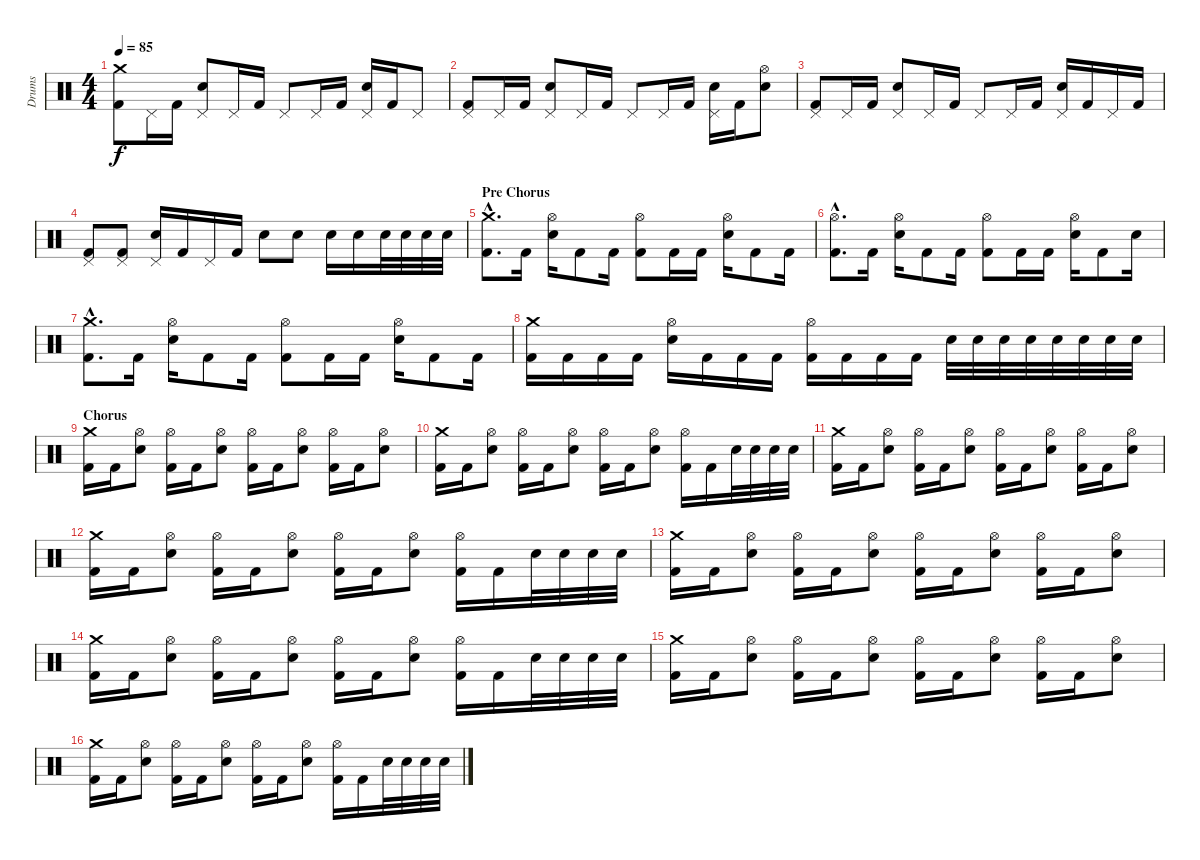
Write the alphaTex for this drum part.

\track ("Drums" "Drums") {instrument percussion}
\staff {score}
\articulation defaults
\ts (4 4)
\tempo 85
\clef neutral
\ks c
("Crash medium (hit)" "Kick (hit) 2").8{dy f} "Pedal Hi-Hat (hit)".16 "Kick (hit) 2".16 ("Pedal Hi-Hat (hit)" "Electric Snare (hit)").8 "Pedal Hi-Hat (hit)".16 "Kick (hit) 2".16 "Pedal Hi-Hat (hit)".8 "Pedal Hi-Hat (hit)".16 "Kick (hit) 2".16 ("Pedal Hi-Hat (hit)" "Electric Snare (hit)").16 "Kick (hit) 2".16 "Pedal Hi-Hat (hit)".8 |
("Pedal Hi-Hat (hit)" "Kick (hit) 2").8 "Pedal Hi-Hat (hit)".16 "Kick (hit) 2".16 ("Pedal Hi-Hat (hit)" "Electric Snare (hit)").8 "Pedal Hi-Hat (hit)".16 "Kick (hit) 2".16 "Pedal Hi-Hat (hit)".8 "Pedal Hi-Hat (hit)".16 "Kick (hit) 2".16 ("Pedal Hi-Hat (hit)" "Electric Snare (hit)").16 "Kick (hit) 2".16 ("Hi-Hat (open)" "Electric Snare (hit)").8 |
("Pedal Hi-Hat (hit)" "Kick (hit) 2").8 "Pedal Hi-Hat (hit)".16 "Kick (hit) 2".16 ("Pedal Hi-Hat (hit)" "Electric Snare (hit)").8 "Pedal Hi-Hat (hit)".16 "Kick (hit) 2".16 "Pedal Hi-Hat (hit)".8 "Pedal Hi-Hat (hit)".16 "Kick (hit) 2".16 ("Pedal Hi-Hat (hit)" "Electric Snare (hit)").16 "Kick (hit) 2".16 "Pedal Hi-Hat (hit)".16 "Kick (hit) 2".16 |
("Pedal Hi-Hat (hit)" "Kick (hit) 2").8 ("Pedal Hi-Hat (hit)" "Kick (hit) 2").8 ("Pedal Hi-Hat (hit)" "Electric Snare (hit)").16 "Kick (hit) 2".16 "Pedal Hi-Hat (hit)".16 "Kick (hit) 2".16 "Electric Snare (hit)".8 "Electric Snare (hit)".8 "Electric Snare (hit)".16 "Electric Snare (hit)".16 "Electric Snare (hit)".32 "Electric Snare (hit)".32 "Electric Snare (hit)".32 "Electric Snare (hit)".32 |
\section ("" "Pre Chorus")
("Crash medium (hit)"{hac} "Kick (hit) 2"{hac}).8{d} "Kick (hit) 2".16 ("Hi-Hat (open)" "Electric Snare (hit)").16 "Kick (hit) 2".8 "Kick (hit) 2".16 ("Hi-Hat (open)" "Kick (hit) 2").8 "Kick (hit) 2".16 "Kick (hit) 2".16 ("Hi-Hat (open)" "Electric Snare (hit)").16 "Kick (hit) 2".8 "Kick (hit) 2".16 |
("Hi-Hat (open)"{hac} "Kick (hit) 2"{hac}).8{d} "Kick (hit) 2".16 ("Hi-Hat (open)" "Electric Snare (hit)").16 "Kick (hit) 2".8 "Kick (hit) 2".16 ("Hi-Hat (open)" "Kick (hit) 2").8 "Kick (hit) 2".16 "Kick (hit) 2".16 ("Hi-Hat (open)" "Electric Snare (hit)").16 "Kick (hit) 2".8 "Electric Snare (hit)".16 |
("Crash medium (hit)"{hac} "Kick (hit) 2"{hac}).8{d} "Kick (hit) 2".16 ("Hi-Hat (open)" "Electric Snare (hit)").16 "Kick (hit) 2".8 "Kick (hit) 2".16 ("Hi-Hat (open)" "Kick (hit) 2").8 "Kick (hit) 2".16 "Kick (hit) 2".16 ("Hi-Hat (open)" "Electric Snare (hit)").16 "Kick (hit) 2".8 "Kick (hit) 2".16 |
("Crash medium (hit)" "Kick (hit) 2").16 "Kick (hit) 2".16 "Kick (hit) 2".16 "Kick (hit) 2".16 ("Hi-Hat (open)" "Electric Snare (hit)").16 "Kick (hit) 2".16 "Kick (hit) 2".16 "Kick (hit) 2".16 ("Hi-Hat (open)" "Kick (hit) 2").16 "Kick (hit) 2".16 "Kick (hit) 2".16 "Kick (hit) 2".16 "Electric Snare (hit)".32 "Electric Snare (hit)".32 "Electric Snare (hit)".32 "Electric Snare (hit)".32 "Electric Snare (hit)".32 "Electric Snare (hit)".32 "Electric Snare (hit)".32 "Electric Snare (hit)".32 |
\section ("" "Chorus")
("Crash medium (hit)" "Kick (hit) 2").16 "Kick (hit) 2".16 ("Hi-Hat (open)" "Electric Snare (hit)").8 ("Hi-Hat (open)" "Kick (hit) 2").16 "Kick (hit) 2".16 ("Hi-Hat (open)" "Electric Snare (hit)").8 ("Hi-Hat (open)" "Kick (hit) 2").16 "Kick (hit) 2".16 ("Hi-Hat (open)" "Electric Snare (hit)").8 ("Hi-Hat (open)" "Kick (hit) 2").16 "Kick (hit) 2".16 ("Hi-Hat (open)" "Electric Snare (hit)").8 |
("Crash medium (hit)" "Kick (hit) 2").16 "Kick (hit) 2".16 ("Hi-Hat (open)" "Electric Snare (hit)").8 ("Hi-Hat (open)" "Kick (hit) 2").16 "Kick (hit) 2".16 ("Hi-Hat (open)" "Electric Snare (hit)").8 ("Hi-Hat (open)" "Kick (hit) 2").16 "Kick (hit) 2".16 ("Hi-Hat (open)" "Electric Snare (hit)").8 ("Hi-Hat (open)" "Kick (hit) 2").16 "Kick (hit) 2".16 "Electric Snare (hit)".32 "Electric Snare (hit)".32 "Electric Snare (hit)".32 "Electric Snare (hit)".32 |
("Crash medium (hit)" "Kick (hit) 2").16 "Kick (hit) 2".16 ("Hi-Hat (open)" "Electric Snare (hit)").8 ("Hi-Hat (open)" "Kick (hit) 2").16 "Kick (hit) 2".16 ("Hi-Hat (open)" "Electric Snare (hit)").8 ("Hi-Hat (open)" "Kick (hit) 2").16 "Kick (hit) 2".16 ("Hi-Hat (open)" "Electric Snare (hit)").8 ("Hi-Hat (open)" "Kick (hit) 2").16 "Kick (hit) 2".16 ("Hi-Hat (open)" "Electric Snare (hit)").8 |
("Crash medium (hit)" "Kick (hit) 2").16 "Kick (hit) 2".16 ("Hi-Hat (open)" "Electric Snare (hit)").8 ("Hi-Hat (open)" "Kick (hit) 2").16 "Kick (hit) 2".16 ("Hi-Hat (open)" "Electric Snare (hit)").8 ("Hi-Hat (open)" "Kick (hit) 2").16 "Kick (hit) 2".16 ("Hi-Hat (open)" "Electric Snare (hit)").8 ("Hi-Hat (open)" "Kick (hit) 2").16 "Kick (hit) 2".16 "Electric Snare (hit)".32 "Electric Snare (hit)".32 "Electric Snare (hit)".32 "Electric Snare (hit)".32 |
("Crash medium (hit)" "Kick (hit) 2").16 "Kick (hit) 2".16 ("Hi-Hat (open)" "Electric Snare (hit)").8 ("Hi-Hat (open)" "Kick (hit) 2").16 "Kick (hit) 2".16 ("Hi-Hat (open)" "Electric Snare (hit)").8 ("Hi-Hat (open)" "Kick (hit) 2").16 "Kick (hit) 2".16 ("Hi-Hat (open)" "Electric Snare (hit)").8 ("Hi-Hat (open)" "Kick (hit) 2").16 "Kick (hit) 2".16 ("Hi-Hat (open)" "Electric Snare (hit)").8 |
("Crash medium (hit)" "Kick (hit) 2").16 "Kick (hit) 2".16 ("Hi-Hat (open)" "Electric Snare (hit)").8 ("Hi-Hat (open)" "Kick (hit) 2").16 "Kick (hit) 2".16 ("Hi-Hat (open)" "Electric Snare (hit)").8 ("Hi-Hat (open)" "Kick (hit) 2").16 "Kick (hit) 2".16 ("Hi-Hat (open)" "Electric Snare (hit)").8 ("Hi-Hat (open)" "Kick (hit) 2").16 "Kick (hit) 2".16 "Electric Snare (hit)".32 "Electric Snare (hit)".32 "Electric Snare (hit)".32 "Electric Snare (hit)".32 |
("Crash medium (hit)" "Kick (hit) 2").16 "Kick (hit) 2".16 ("Hi-Hat (open)" "Electric Snare (hit)").8 ("Hi-Hat (open)" "Kick (hit) 2").16 "Kick (hit) 2".16 ("Hi-Hat (open)" "Electric Snare (hit)").8 ("Hi-Hat (open)" "Kick (hit) 2").16 "Kick (hit) 2".16 ("Hi-Hat (open)" "Electric Snare (hit)").8 ("Hi-Hat (open)" "Kick (hit) 2").16 "Kick (hit) 2".16 ("Hi-Hat (open)" "Electric Snare (hit)").8 |
("Crash medium (hit)" "Kick (hit) 2").16 "Kick (hit) 2".16 ("Hi-Hat (open)" "Electric Snare (hit)").8 ("Hi-Hat (open)" "Kick (hit) 2").16 "Kick (hit) 2".16 ("Hi-Hat (open)" "Electric Snare (hit)").8 ("Hi-Hat (open)" "Kick (hit) 2").16 "Kick (hit) 2".16 ("Hi-Hat (open)" "Electric Snare (hit)").8 ("Hi-Hat (open)" "Kick (hit) 2").16 "Kick (hit) 2".16 "Electric Snare (hit)".32 "Electric Snare (hit)".32 "Electric Snare (hit)".32 "Electric Snare (hit)".32
